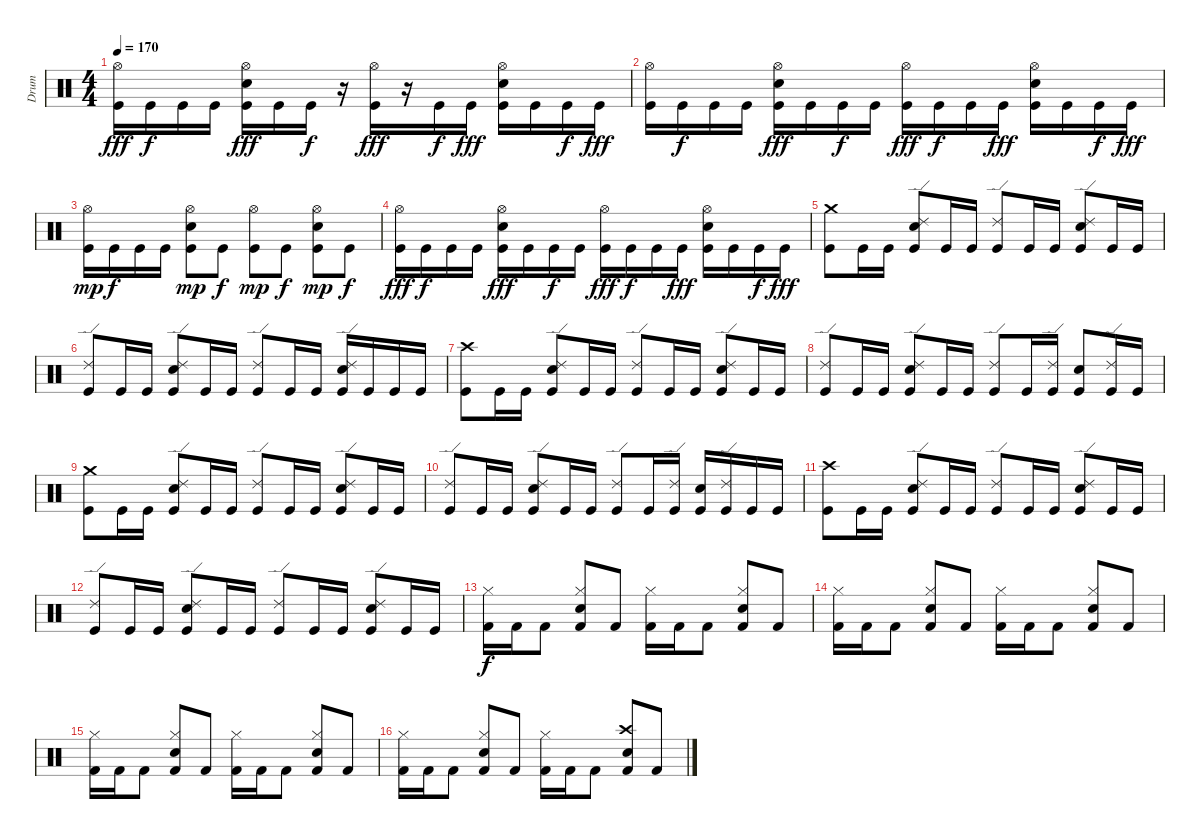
\track ("Drum" "Drum") {instrument percussion}
\staff {score}
\articulation defaults
\ts (4 4)
\tempo 170
\clef neutral
\ks c
("Hi-Hat (open)" "Kick (hit)").16{dy fff} "Kick (hit)".16{dy f} "Kick (hit)".16 "Kick (hit)".16 ("Hi-Hat (open)" "Snare (hit) 2" "Kick (hit)").16{dy fff} "Kick (hit)".16 "Kick (hit)".16{dy f} r.16 ("Hi-Hat (open)" "Kick (hit)").16{dy fff} r.16 "Kick (hit)".16{dy f} "Kick (hit)".16{dy fff} ("Hi-Hat (open)" "Snare (hit) 2" "Kick (hit)").16 "Kick (hit)".16 "Kick (hit)".16{dy f} "Kick (hit)".16{dy fff} |
("Hi-Hat (open)" "Kick (hit)").16 "Kick (hit)".16{dy f} "Kick (hit)".16 "Kick (hit)".16 ("Hi-Hat (open)" "Snare (hit) 2" "Kick (hit)").16{dy fff} "Kick (hit)".16 "Kick (hit)".16{dy f} "Kick (hit)".16 ("Hi-Hat (open)" "Kick (hit)").16{dy fff} "Kick (hit)".16{dy f} "Kick (hit)".16 "Kick (hit)".16{dy fff} ("Hi-Hat (open)" "Snare (hit) 2" "Kick (hit)").16 "Kick (hit)".16 "Kick (hit)".16{dy f} "Kick (hit)".16{dy fff} |
("Hi-Hat (open)" "Kick (hit)").16{dy mp} "Kick (hit)".16{dy f} "Kick (hit)".16 "Kick (hit)".16 ("Hi-Hat (open)" "Snare (hit) 2" "Kick (hit)").8{dy mp} "Kick (hit)".8{dy f} ("Hi-Hat (open)" "Kick (hit)").8{dy mp} "Kick (hit)".8{dy f} ("Hi-Hat (open)" "Snare (hit) 2" "Kick (hit)").8{dy mp} "Kick (hit)".8{dy f} |
("Hi-Hat (open)" "Kick (hit)").16{dy fff} "Kick (hit)".16{dy f} "Kick (hit)".16 "Kick (hit)".16 ("Hi-Hat (open)" "Snare (hit) 2" "Kick (hit)").16{dy fff} "Kick (hit)".16 "Kick (hit)".16{dy f} "Kick (hit)".16 ("Hi-Hat (open)" "Kick (hit)").16{dy fff} "Kick (hit)".16{dy f} "Kick (hit)".16 "Kick (hit)".16{dy fff} ("Hi-Hat (open)" "Snare (hit) 2" "Kick (hit)").16 "Kick (hit)".16 "Kick (hit)".16{dy f} "Kick (hit)".16{dy fff} |
("Crash medium (hit)" "Kick (hit)").8 "Kick (hit)".16 "Kick (hit)".16 ("Ride (edge) 2" "Snare (hit) 2" "Kick (hit)").8 "Kick (hit)".16 "Kick (hit)".16 ("Ride (edge) 2" "Kick (hit)").8 "Kick (hit)".16 "Kick (hit)".16 ("Ride (edge) 2" "Snare (hit) 2" "Kick (hit)").8 "Kick (hit)".16 "Kick (hit)".16 |
("Ride (edge) 2" "Kick (hit)").8 "Kick (hit)".16 "Kick (hit)".16 ("Ride (edge) 2" "Snare (hit) 2" "Kick (hit)").8 "Kick (hit)".16 "Kick (hit)".16 ("Ride (edge) 2" "Kick (hit)").8 "Kick (hit)".16 "Kick (hit)".16 ("Ride (edge) 2" "Snare (hit) 2" "Kick (hit)").16 "Kick (hit)".16 "Kick (hit)".16 "Kick (hit)".16 |
("Crash high (hit)" "Kick (hit)").8 "Kick (hit)".16 "Kick (hit)".16 ("Ride (edge) 2" "Snare (hit) 2" "Kick (hit)").8 "Kick (hit)".16 "Kick (hit)".16 ("Ride (edge) 2" "Kick (hit)").8 "Kick (hit)".16 "Kick (hit)".16 ("Ride (edge) 2" "Snare (hit) 2" "Kick (hit)").8 "Kick (hit)".16 "Kick (hit)".16 |
("Ride (edge) 2" "Kick (hit)").8 "Kick (hit)".16 "Kick (hit)".16 ("Ride (edge) 2" "Snare (hit) 2" "Kick (hit)").8 "Kick (hit)".16 "Kick (hit)".16 ("Ride (edge) 2" "Kick (hit)").8 "Kick (hit)".16 ("Ride (edge) 2" "Kick (hit)").16 ("Snare (hit) 2" "Kick (hit)").8 ("Ride (edge) 2" "Kick (hit)").16 "Kick (hit)".16 |
("Crash medium (hit)" "Kick (hit)").8 "Kick (hit)".16 "Kick (hit)".16 ("Ride (edge) 2" "Snare (hit) 2" "Kick (hit)").8 "Kick (hit)".16 "Kick (hit)".16 ("Ride (edge) 2" "Kick (hit)").8 "Kick (hit)".16 "Kick (hit)".16 ("Ride (edge) 2" "Snare (hit) 2" "Kick (hit)").8 "Kick (hit)".16 "Kick (hit)".16 |
("Ride (edge) 2" "Kick (hit)").8 "Kick (hit)".16 "Kick (hit)".16 ("Ride (edge) 2" "Snare (hit) 2" "Kick (hit)").8 "Kick (hit)".16 "Kick (hit)".16 ("Ride (edge) 2" "Kick (hit)").8 "Kick (hit)".16 ("Ride (edge) 2" "Kick (hit)").16 ("Snare (hit) 2" "Kick (hit)").16 ("Ride (edge) 2" "Kick (hit)").16 "Kick (hit)".16 "Kick (hit)".16 |
("Crash high (hit)" "Kick (hit)").8 "Kick (hit)".16 "Kick (hit)".16 ("Ride (edge) 2" "Snare (hit) 2" "Kick (hit)").8 "Kick (hit)".16 "Kick (hit)".16 ("Ride (edge) 2" "Kick (hit)").8 "Kick (hit)".16 "Kick (hit)".16 ("Ride (edge) 2" "Snare (hit) 2" "Kick (hit)").8 "Kick (hit)".16 "Kick (hit)".16 |
("Ride (edge) 2" "Kick (hit)").8 "Kick (hit)".16 "Kick (hit)".16 ("Ride (edge) 2" "Snare (hit) 2" "Kick (hit)").8 "Kick (hit)".16 "Kick (hit)".16 ("Ride (edge) 2" "Kick (hit)").8 "Kick (hit)".16 "Kick (hit)".16 ("Ride (edge) 2" "Snare (hit) 2" "Kick (hit)").8 "Kick (hit)".16 "Kick (hit)".16 |
("Hi-Hat (closed)" "Kick (hit) 2").16{dy f} "Kick (hit) 2".16 "Kick (hit) 2".8 ("Hi-Hat (closed)" "Snare (hit) 2" "Kick (hit) 2").8 "Kick (hit) 2".8 ("Hi-Hat (closed)" "Kick (hit) 2").16 "Kick (hit) 2".16 "Kick (hit) 2".8 ("Hi-Hat (closed)" "Snare (hit) 2" "Kick (hit) 2").8 "Kick (hit) 2".8 |
("Hi-Hat (closed)" "Kick (hit) 2").16 "Kick (hit) 2".16 "Kick (hit) 2".8 ("Hi-Hat (closed)" "Snare (hit) 2" "Kick (hit) 2").8 "Kick (hit) 2".8 ("Hi-Hat (closed)" "Kick (hit) 2").16 "Kick (hit) 2".16 "Kick (hit) 2".8 ("Hi-Hat (closed)" "Snare (hit) 2" "Kick (hit) 2").8 "Kick (hit) 2".8 |
("Hi-Hat (closed)" "Kick (hit) 2").16 "Kick (hit) 2".16 "Kick (hit) 2".8 ("Hi-Hat (closed)" "Snare (hit) 2" "Kick (hit) 2").8 "Kick (hit) 2".8 ("Hi-Hat (closed)" "Kick (hit) 2").16 "Kick (hit) 2".16 "Kick (hit) 2".8 ("Hi-Hat (closed)" "Snare (hit) 2" "Kick (hit) 2").8 "Kick (hit) 2".8 |
("Hi-Hat (closed)" "Kick (hit) 2").16 "Kick (hit) 2".16 "Kick (hit) 2".8 ("Hi-Hat (closed)" "Snare (hit) 2" "Kick (hit) 2").8 "Kick (hit) 2".8 ("Hi-Hat (closed)" "Kick (hit) 2").16 "Kick (hit) 2".16 "Kick (hit) 2".8 ("Crash high (hit)" "Snare (hit) 2" "Kick (hit) 2").8 "Kick (hit) 2".8
